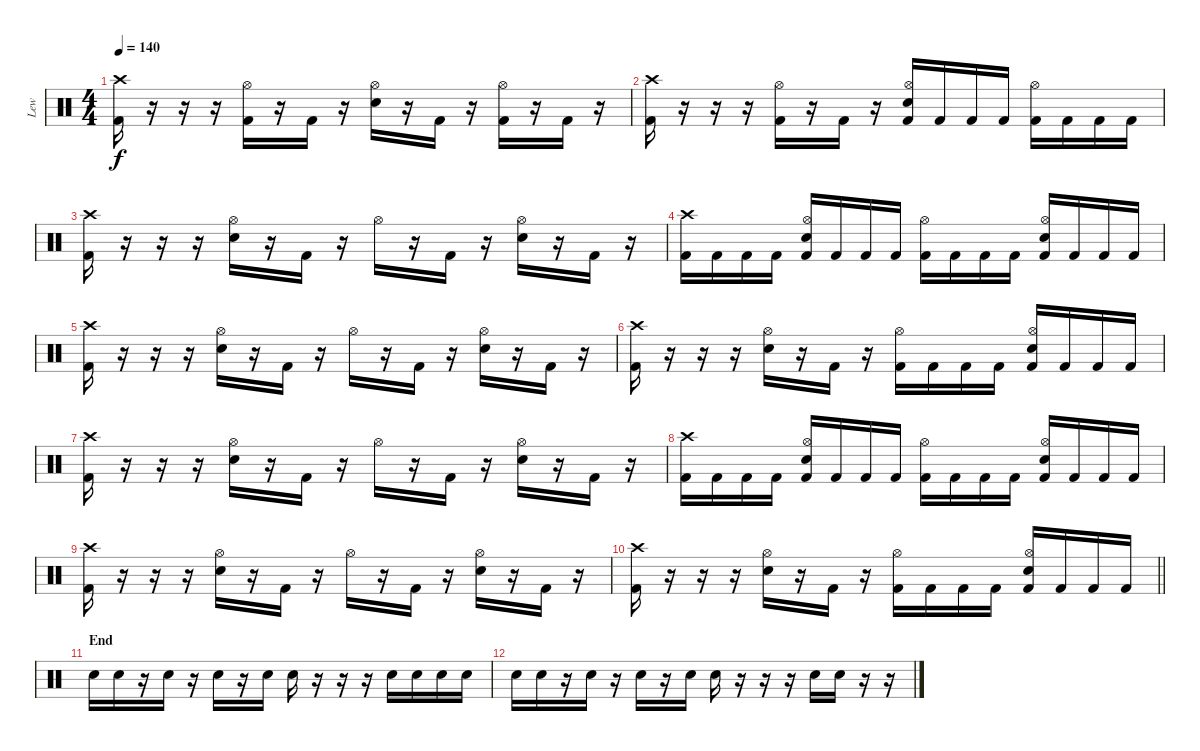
\track ("Lew" "Lew") {instrument percussion}
\staff {score}
\articulation defaults
\ts (4 4)
\tempo 140
\clef neutral
\ks c
("Crash high (hit)" "Kick (hit) 2").16{dy f} r.16 r.16 r.16 ("Hi-Hat (open)" "Kick (hit) 2").16 r.16 "Kick (hit) 2".16 r.16 ("Hi-Hat (open)" "Electric Snare (hit)").16 r.16 "Kick (hit) 2".16 r.16 ("Hi-Hat (open)" "Kick (hit) 2").16 r.16 "Kick (hit) 2".16 r.16 |
("Crash high (hit)" "Kick (hit) 2").16 r.16 r.16 r.16 ("Hi-Hat (open)" "Kick (hit) 2").16 r.16 "Kick (hit) 2".16 r.16 ("Hi-Hat (open)" "Electric Snare (hit)" "Kick (hit) 2").16 "Kick (hit) 2".16 "Kick (hit) 2".16 "Kick (hit) 2".16 ("Hi-Hat (open)" "Kick (hit) 2").16 "Kick (hit) 2".16 "Kick (hit) 2".16 "Kick (hit) 2".16 |
("Crash high (hit)" "Kick (hit) 2").16 r.16 r.16 r.16 ("Hi-Hat (open)" "Electric Snare (hit)").16 r.16 "Kick (hit) 2".16 r.16 "Hi-Hat (open)".16 r.16 "Kick (hit) 2".16 r.16 ("Hi-Hat (open)" "Electric Snare (hit)").16 r.16 "Kick (hit) 2".16 r.16 |
("Crash high (hit)" "Kick (hit) 2").16 "Kick (hit) 2".16 "Kick (hit) 2".16 "Kick (hit) 2".16 ("Hi-Hat (open)" "Electric Snare (hit)" "Kick (hit) 2").16 "Kick (hit) 2".16 "Kick (hit) 2".16 "Kick (hit) 2".16 ("Hi-Hat (open)" "Kick (hit) 2").16 "Kick (hit) 2".16 "Kick (hit) 2".16 "Kick (hit) 2".16 ("Hi-Hat (open)" "Electric Snare (hit)" "Kick (hit) 2").16 "Kick (hit) 2".16 "Kick (hit) 2".16 "Kick (hit) 2".16 |
("Crash high (hit)" "Kick (hit) 2").16 r.16 r.16 r.16 ("Hi-Hat (open)" "Electric Snare (hit)").16 r.16 "Kick (hit) 2".16 r.16 "Hi-Hat (open)".16 r.16 "Kick (hit) 2".16 r.16 ("Hi-Hat (open)" "Electric Snare (hit)").16 r.16 "Kick (hit) 2".16 r.16 |
("Crash high (hit)" "Kick (hit) 2").16 r.16 r.16 r.16 ("Hi-Hat (open)" "Electric Snare (hit)").16 r.16 "Kick (hit) 2".16 r.16 ("Hi-Hat (open)" "Kick (hit) 2").16 "Kick (hit) 2".16 "Kick (hit) 2".16 "Kick (hit) 2".16 ("Hi-Hat (open)" "Electric Snare (hit)" "Kick (hit) 2").16 "Kick (hit) 2".16 "Kick (hit) 2".16 "Kick (hit) 2".16 |
("Crash high (hit)" "Kick (hit) 2").16 r.16 r.16 r.16 ("Hi-Hat (open)" "Electric Snare (hit)").16 r.16 "Kick (hit) 2".16 r.16 "Hi-Hat (open)".16 r.16 "Kick (hit) 2".16 r.16 ("Hi-Hat (open)" "Electric Snare (hit)").16 r.16 "Kick (hit) 2".16 r.16 |
("Crash high (hit)" "Kick (hit) 2").16 "Kick (hit) 2".16 "Kick (hit) 2".16 "Kick (hit) 2".16 ("Hi-Hat (open)" "Electric Snare (hit)" "Kick (hit) 2").16 "Kick (hit) 2".16 "Kick (hit) 2".16 "Kick (hit) 2".16 ("Hi-Hat (open)" "Kick (hit) 2").16 "Kick (hit) 2".16 "Kick (hit) 2".16 "Kick (hit) 2".16 ("Hi-Hat (open)" "Electric Snare (hit)" "Kick (hit) 2").16 "Kick (hit) 2".16 "Kick (hit) 2".16 "Kick (hit) 2".16 |
("Crash high (hit)" "Kick (hit) 2").16 r.16 r.16 r.16 ("Hi-Hat (open)" "Electric Snare (hit)").16 r.16 "Kick (hit) 2".16 r.16 "Hi-Hat (open)".16 r.16 "Kick (hit) 2".16 r.16 ("Hi-Hat (open)" "Electric Snare (hit)").16 r.16 "Kick (hit) 2".16 r.16 |
\barLineRight lightlight
("Crash high (hit)" "Kick (hit) 2").16 r.16 r.16 r.16 ("Hi-Hat (open)" "Electric Snare (hit)").16 r.16 "Kick (hit) 2".16 r.16 ("Hi-Hat (open)" "Kick (hit) 2").16 "Kick (hit) 2".16 "Kick (hit) 2".16 "Kick (hit) 2".16 ("Hi-Hat (open)" "Electric Snare (hit)" "Kick (hit) 2").16 "Kick (hit) 2".16 "Kick (hit) 2".16 "Kick (hit) 2".16 |
\section ("" "End")
"Electric Snare (hit)".16 "Electric Snare (hit)".16 r.16 "Electric Snare (hit)".16 r.16 "Electric Snare (hit)".16 r.16 "Electric Snare (hit)".16 "Electric Snare (hit)".16 r.16 r.16 r.16 "Electric Snare (hit)".16 "Electric Snare (hit)".16 "Electric Snare (hit)".16 "Electric Snare (hit)".16 |
"Electric Snare (hit)".16 "Electric Snare (hit)".16 r.16 "Electric Snare (hit)".16 r.16 "Electric Snare (hit)".16 r.16 "Electric Snare (hit)".16 "Electric Snare (hit)".16 r.16 r.16 r.16 "Electric Snare (hit)".16 "Electric Snare (hit)".16 r.16 r.16
